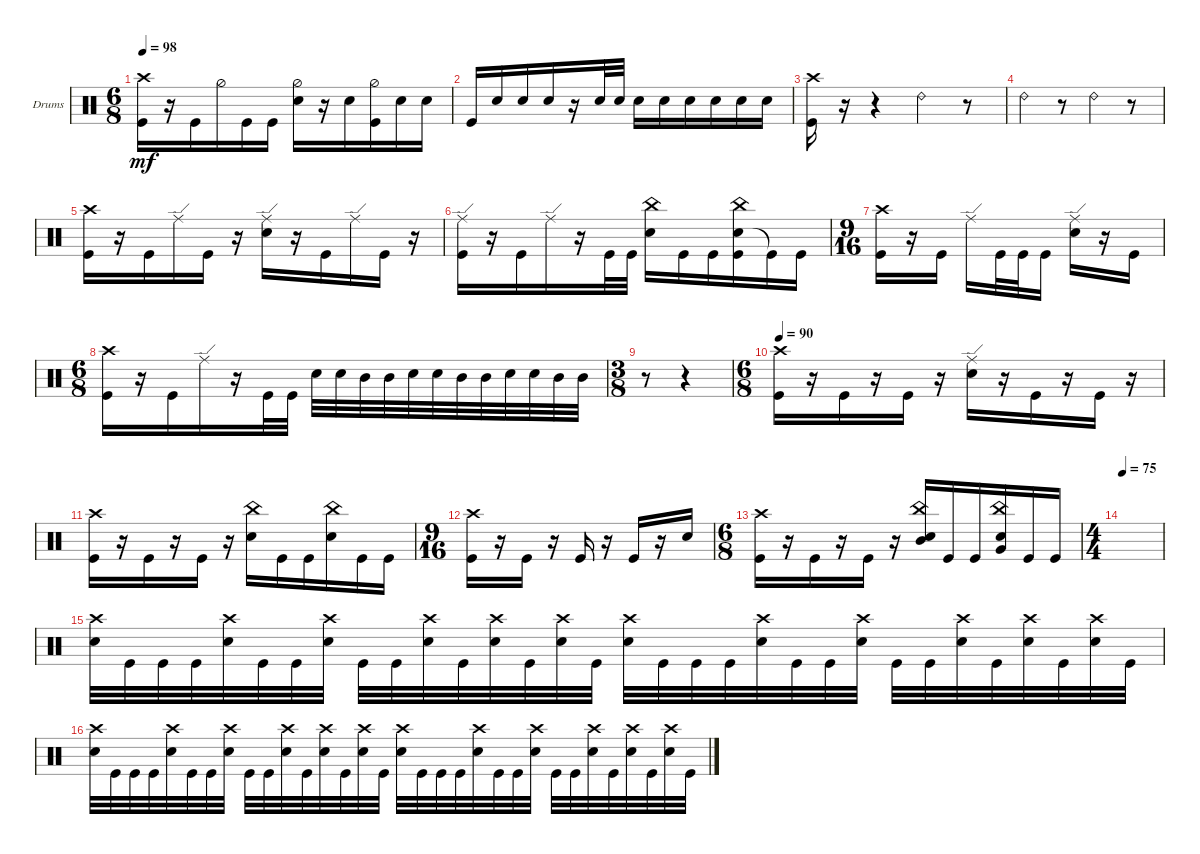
\defaultSystemsLayout 4
\bracketExtendMode groupsimilarinstruments
\firstSystemTrackNameOrientation horizontal
\otherSystemsTrackNameOrientation horizontal
\track ("Drumkit" "Drums") {instrument percussion}
\staff {score}
\articulation defaults
\ts (6 8)
\tempo 98
\clef neutral
\ks c
("Kick (hit)" "Crash high (hit)").16{dy mf} r.16 "Kick (hit)".16 "Hi-Hat (half)".16 "Kick (hit)".16 "Kick (hit)".16 ("Snare (hit) 2" "Hi-Hat (half)").16 r.16 "Snare (hit) 2".16 ("Hi-Hat (half)" "Kick (hit)").16 "Snare (hit) 2".16 "Snare (hit) 2".16 |
"Kick (hit)".16 "Snare (hit) 2".16 "Snare (hit) 2".16 "Snare (hit) 2".16 r.16 "Snare (hit) 2".32 "Snare (hit) 2".32 "Snare (hit) 2".16 "Snare (hit) 2".16 "Snare (hit) 2".16 "Snare (hit) 2".16 "Snare (hit) 2".16 "Snare (hit) 2".16 |
("Kick (hit)" "Crash high (hit)").16 r.16 r.4 "Ride (bell) 2".4 r.8 |
"Ride (bell) 2".4 r.8 "Ride (bell) 2".4 r.8 |
("Crash high (hit)" "Kick (hit)").16 r.16 "Kick (hit)".16 "Ride (edge)".16 "Kick (hit)".16 r.16 ("Ride (edge)" "Snare (hit) 2").16 r.16 "Kick (hit)".16 "Ride (edge)".16 "Kick (hit)".16 r.16 |
("Kick (hit)" "Ride (edge)").16 r.16 "Kick (hit)".16 "Ride (edge)".16 r.16 "Kick (hit)".32 "Kick (hit)".32 ("Snare (hit) 2" "China (hit)").16 "Kick (hit)".16 "Kick (hit)".16 ("Snare (hit) 2" "China (hit)" "Kick (hit)").16 "Kick (hit)"{t}.16 "Kick (hit)".16 |
\ts (9 16)
("Crash high (hit)" "Kick (hit)").16 r.16 "Kick (hit)".16 "Ride (edge)".16 "Kick (hit)".32 "Kick (hit)".32 "Kick (hit)".16 ("Ride (edge)" "Snare (hit) 2").16 r.16 "Kick (hit)".16 |
\ts (6 8)
("Crash high (hit)" "Kick (hit)").16 r.16 "Kick (hit)".16 "Ride (edge)".16 r.16 "Kick (hit)".32 "Kick (hit)".32 "Snare (hit) 2".32 "Snare (hit) 2".32 "Mid Tom (hit)".32 "Mid Tom (hit)".32 "Snare (hit) 2".32 "Snare (hit) 2".32 "Mid Tom (hit)".32 "Mid Tom (hit)".32 "Snare (hit) 2".32 "Snare (hit) 2".32 "Mid Tom (hit)".32 "Mid Tom (hit)".32 |
\ts (3 8)
r.8 r.4 |
\ts (6 8)
\tempo 90
("Crash high (hit)" "Kick (hit)").16 r.16 "Kick (hit)".16 r.16 "Kick (hit)".16 r.16 ("Ride (edge)" "Snare (hit) 2").16 r.16 "Kick (hit)".16 r.16 "Kick (hit)".16 r.16 |
("Crash high (hit)" "Kick (hit)").16 r.16 "Kick (hit)".16 r.16 "Kick (hit)".16 r.16 ("Snare (hit) 2" "China (hit)").16 "Kick (hit)".16 "Kick (hit)".16 ("Snare (hit) 2" "China (hit)").16 "Kick (hit)".16 "Kick (hit)".16 |
\ts (9 16)
("Crash high (hit)" "Kick (hit)").16 r.16 "Kick (hit)".16 r.16 "Kick (hit)".16 r.16 "Kick (hit)".16 r.16 "Snare (hit) 2".16 |
\ts (6 8)
("Crash high (hit)" "Kick (hit)").16 r.16 "Kick (hit)".16 r.16 "Kick (hit)".16 r.16 ("Snare (hit) 2" "China (hit)" "Mid Tom (hit)").16 "Kick (hit)".16 "Kick (hit)".16 ("Snare (hit) 2" "China (hit)" "Very Low Tom (hit)").16 "Kick (hit)".16 "Kick (hit)".16 |
\ts (4 4)
\tempo 75
|
("Snare (hit) 2" "Crash high (hit)").32 "Kick (hit)".32 "Kick (hit)".32 "Kick (hit)".32 ("Snare (hit) 2" "Crash high (hit)").32 "Kick (hit)".32 "Kick (hit)".32 ("Snare (hit) 2" "Crash high (hit)").32 "Kick (hit)".32 "Kick (hit)".32 ("Snare (hit) 2" "Crash high (hit)").32 "Kick (hit)".32 ("Snare (hit) 2" "Crash high (hit)").32 "Kick (hit)".32 ("Snare (hit) 2" "Crash high (hit)").32 "Kick (hit)".32 ("Snare (hit) 2" "Crash high (hit)").32 "Kick (hit)".32 "Kick (hit)".32 "Kick (hit)".32 ("Snare (hit) 2" "Crash high (hit)").32 "Kick (hit)".32 "Kick (hit)".32 ("Snare (hit) 2" "Crash high (hit)").32 "Kick (hit)".32 "Kick (hit)".32 ("Snare (hit) 2" "Crash high (hit)").32 "Kick (hit)".32 ("Snare (hit) 2" "Crash high (hit)").32 "Kick (hit)".32 ("Snare (hit) 2" "Crash high (hit)").32 "Kick (hit)".32 |
("Snare (hit) 2" "Crash high (hit)").32 "Kick (hit)".32 "Kick (hit)".32 "Kick (hit)".32 ("Snare (hit) 2" "Crash high (hit)").32 "Kick (hit)".32 "Kick (hit)".32 ("Snare (hit) 2" "Crash high (hit)").32 "Kick (hit)".32 "Kick (hit)".32 ("Snare (hit) 2" "Crash high (hit)").32 "Kick (hit)".32 ("Snare (hit) 2" "Crash high (hit)").32 "Kick (hit)".32 ("Snare (hit) 2" "Crash high (hit)").32 "Kick (hit)".32 ("Snare (hit) 2" "Crash high (hit)").32 "Kick (hit)".32 "Kick (hit)".32 "Kick (hit)".32 ("Snare (hit) 2" "Crash high (hit)").32 "Kick (hit)".32 "Kick (hit)".32 ("Snare (hit) 2" "Crash high (hit)").32 "Kick (hit)".32 "Kick (hit)".32 ("Snare (hit) 2" "Crash high (hit)").32 "Kick (hit)".32 ("Snare (hit) 2" "Crash high (hit)").32 "Kick (hit)".32 ("Snare (hit) 2" "Crash high (hit)").32 "Kick (hit)".32
